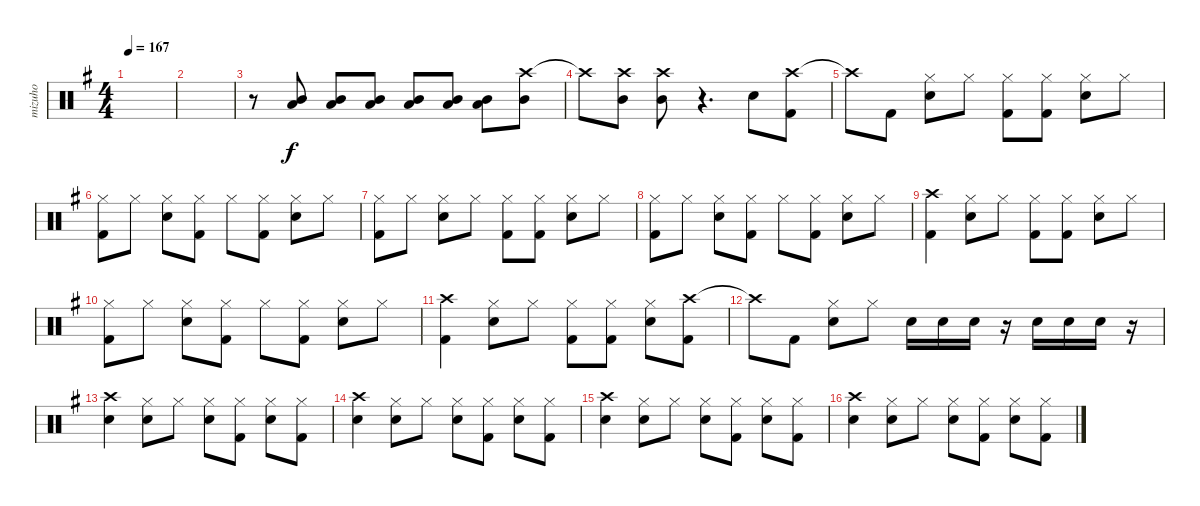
\track ("mizuho" "mizuho") {instrument percussion}
\staff {score}
\articulation defaults
\ts (4 4)
\tempo 167
\clef neutral
\ks eminor
|
|
r.8 ("Mid Tom (hit)" "Low Floor Tom (hit)").8 ("Mid Tom (hit)" "Low Floor Tom (hit)").8 ("Mid Tom (hit)" "Low Floor Tom (hit)").8 ("Mid Tom (hit)" "Low Floor Tom (hit)").8 ("Mid Tom (hit)" "Low Floor Tom (hit)").8 ("Mid Tom (hit)" "Low Floor Tom (hit)").8 ("Crash high (hit)" "Mid Tom (hit)").8 |
"Crash high (hit)"{t}.8 ("Crash high (hit)" "Mid Tom (hit)").8 ("Crash high (hit)" "Mid Tom (hit)").8 r.4{d} "Electric Snare (hit)".8 ("Crash high (hit)" "Kick (hit) 2").8 |
"Crash high (hit)"{t}.8 "Kick (hit) 2".8 ("Hi-Hat (closed)" "Electric Snare (hit)").8 "Hi-Hat (closed)".8 ("Hi-Hat (closed)" "Kick (hit) 2").8 ("Hi-Hat (closed)" "Kick (hit) 2").8 ("Hi-Hat (closed)" "Electric Snare (hit)").8 "Hi-Hat (closed)".8 |
("Hi-Hat (closed)" "Kick (hit) 2").8 "Hi-Hat (closed)".8 ("Hi-Hat (closed)" "Electric Snare (hit)").8 ("Hi-Hat (closed)" "Kick (hit) 2").8 "Hi-Hat (closed)".8 ("Hi-Hat (closed)" "Kick (hit) 2").8 ("Hi-Hat (closed)" "Electric Snare (hit)").8 "Hi-Hat (closed)".8 |
("Hi-Hat (closed)" "Kick (hit) 2").8 "Hi-Hat (closed)".8 ("Hi-Hat (closed)" "Electric Snare (hit)").8 "Hi-Hat (closed)".8 ("Hi-Hat (closed)" "Kick (hit) 2").8 ("Hi-Hat (closed)" "Kick (hit) 2").8 ("Hi-Hat (closed)" "Electric Snare (hit)").8 "Hi-Hat (closed)".8 |
("Hi-Hat (closed)" "Kick (hit) 2").8 "Hi-Hat (closed)".8 ("Hi-Hat (closed)" "Electric Snare (hit)").8 ("Hi-Hat (closed)" "Kick (hit) 2").8 "Hi-Hat (closed)".8 ("Hi-Hat (closed)" "Kick (hit) 2").8 ("Hi-Hat (closed)" "Electric Snare (hit)").8 "Hi-Hat (closed)".8 |
("Crash high (hit)" "Kick (hit) 2").4 ("Hi-Hat (closed)" "Electric Snare (hit)").8 "Hi-Hat (closed)".8 ("Hi-Hat (closed)" "Kick (hit) 2").8 ("Hi-Hat (closed)" "Kick (hit) 2").8 ("Hi-Hat (closed)" "Electric Snare (hit)").8 "Hi-Hat (closed)".8 |
("Hi-Hat (closed)" "Kick (hit) 2").8 "Hi-Hat (closed)".8 ("Hi-Hat (closed)" "Electric Snare (hit)").8 ("Hi-Hat (closed)" "Kick (hit) 2").8 "Hi-Hat (closed)".8 ("Hi-Hat (closed)" "Kick (hit) 2").8 ("Hi-Hat (closed)" "Electric Snare (hit)").8 "Hi-Hat (closed)".8 |
("Crash high (hit)" "Kick (hit) 2").4 ("Hi-Hat (closed)" "Electric Snare (hit)").8 "Hi-Hat (closed)".8 ("Hi-Hat (closed)" "Kick (hit) 2").8 ("Hi-Hat (closed)" "Kick (hit) 2").8 ("Hi-Hat (closed)" "Electric Snare (hit)").8 ("Crash high (hit)" "Kick (hit) 2").8 |
"Crash high (hit)"{t}.8 "Kick (hit) 2".8 ("Hi-Hat (closed)" "Electric Snare (hit)").8 "Hi-Hat (closed)".8 "Snare (hit) 2".16 "Snare (hit) 2".16 "Snare (hit) 2".16 r.16 "Snare (hit) 2".16 "Snare (hit) 2".16 "Snare (hit) 2".16 r.16 |
("Crash high (hit)" "Electric Snare (hit)").4 ("Hi-Hat (closed)" "Electric Snare (hit)").8 "Hi-Hat (closed)".8 ("Hi-Hat (closed)" "Electric Snare (hit)").8 ("Hi-Hat (closed)" "Kick (hit) 2").8 ("Hi-Hat (closed)" "Electric Snare (hit)").8 ("Hi-Hat (closed)" "Kick (hit) 2").8 |
("Crash high (hit)" "Electric Snare (hit)").4 ("Hi-Hat (closed)" "Electric Snare (hit)").8 "Hi-Hat (closed)".8 ("Hi-Hat (closed)" "Electric Snare (hit)").8 ("Hi-Hat (closed)" "Kick (hit) 2").8 ("Hi-Hat (closed)" "Electric Snare (hit)").8 ("Hi-Hat (closed)" "Kick (hit) 2").8 |
("Crash high (hit)" "Electric Snare (hit)").4 ("Hi-Hat (closed)" "Electric Snare (hit)").8 "Hi-Hat (closed)".8 ("Hi-Hat (closed)" "Electric Snare (hit)").8 ("Hi-Hat (closed)" "Kick (hit) 2").8 ("Hi-Hat (closed)" "Electric Snare (hit)").8 ("Hi-Hat (closed)" "Kick (hit) 2").8 |
("Crash high (hit)" "Electric Snare (hit)").4 ("Hi-Hat (closed)" "Electric Snare (hit)").8 "Hi-Hat (closed)".8 ("Hi-Hat (closed)" "Electric Snare (hit)").8 ("Hi-Hat (closed)" "Kick (hit) 2").8 ("Hi-Hat (closed)" "Electric Snare (hit)").8 ("Hi-Hat (closed)" "Kick (hit) 2").8
